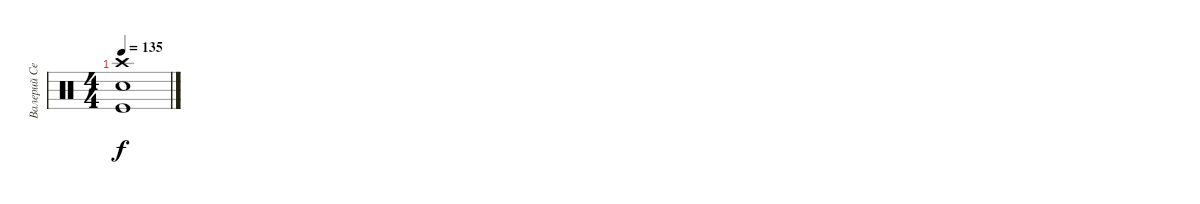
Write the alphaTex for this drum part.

\track ("Валерий Северин" "Валерий Се") {instrument percussion}
\staff {score}
\articulation defaults
\ts (4 4)
\tempo 135
\clef neutral
\ks c
("Kick (hit)" "Snare (hit) 2" "Crash high (hit)").1{dy f}
